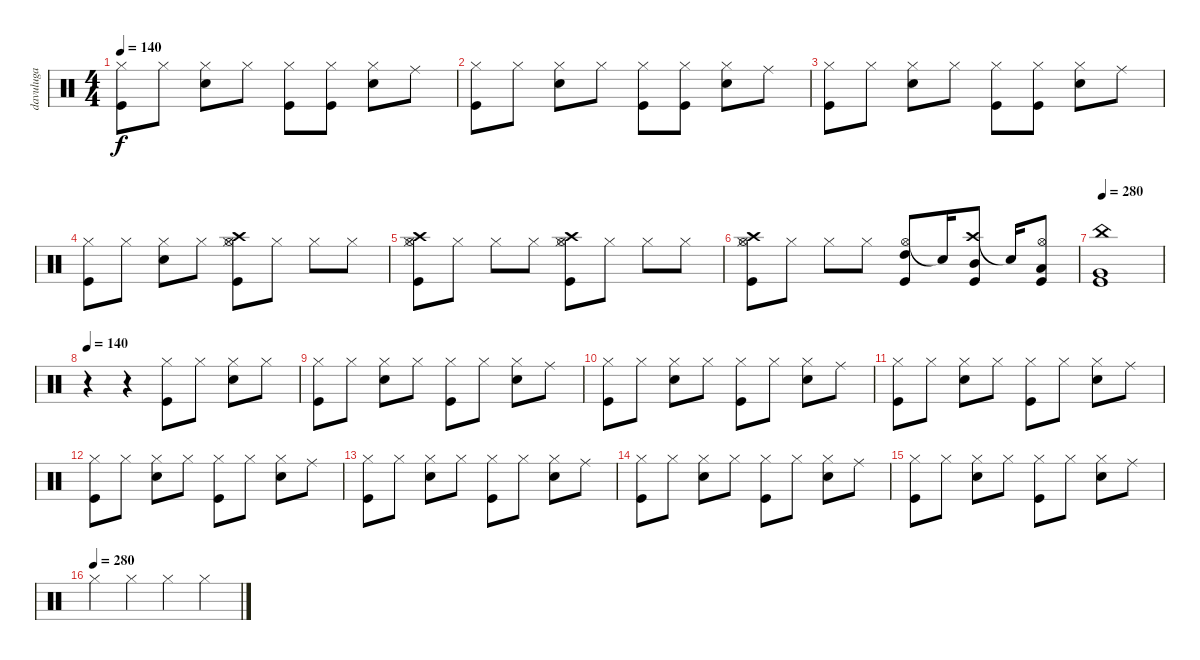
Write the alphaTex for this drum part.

\track ("davuluga" "davuluga") {instrument percussion}
\staff {score}
\articulation defaults
\ts (4 4)
\tempo 140
\clef neutral
\ks c
("Hi-Hat (closed)" "Kick (hit)").8{dy f} "Hi-Hat (closed)".8 ("Hi-Hat (closed)" "Electric Snare (hit)").8 "Hi-Hat (closed)".8 ("Hi-Hat (closed)" "Kick (hit)").8 ("Hi-Hat (closed)" "Kick (hit)").8 ("Hi-Hat (closed)" "Electric Snare (hit)").8 "Ride (middle)".8 |
("Hi-Hat (closed)" "Kick (hit)").8 "Hi-Hat (closed)".8 ("Hi-Hat (closed)" "Electric Snare (hit)").8 "Hi-Hat (closed)".8 ("Hi-Hat (closed)" "Kick (hit)").8 ("Hi-Hat (closed)" "Kick (hit)").8 ("Hi-Hat (closed)" "Electric Snare (hit)").8 "Ride (middle)".8 |
("Hi-Hat (closed)" "Kick (hit)").8 "Hi-Hat (closed)".8 ("Hi-Hat (closed)" "Electric Snare (hit)").8 "Hi-Hat (closed)".8 ("Hi-Hat (closed)" "Kick (hit)").8 ("Hi-Hat (closed)" "Kick (hit)").8 ("Hi-Hat (closed)" "Electric Snare (hit)").8 "Ride (middle)".8 |
("Hi-Hat (closed)" "Kick (hit)").8 "Hi-Hat (closed)".8 ("Hi-Hat (closed)" "Electric Snare (hit)").8 "Hi-Hat (closed)".8 ("Hi-Hat (closed)" "Crash high (hit)" "Hi-Hat (open)" "Kick (hit)").8 "Hi-Hat (closed)".8 "Hi-Hat (closed)".8 "Hi-Hat (closed)".8 |
("Hi-Hat (closed)" "Crash high (hit)" "Hi-Hat (open)" "Kick (hit)").8 "Hi-Hat (closed)".8 "Hi-Hat (closed)".8 "Hi-Hat (closed)".8 ("Hi-Hat (closed)" "Crash high (hit)" "Hi-Hat (open)" "Kick (hit)").8 "Hi-Hat (closed)".8 "Hi-Hat (closed)".8 "Hi-Hat (closed)".8 |
("Hi-Hat (closed)" "Crash high (hit)" "Hi-Hat (open)" "Kick (hit)").8 "Hi-Hat (closed)".8 "Hi-Hat (closed)".8 "Hi-Hat (closed)".8 ("Hi-Hat (open)" "High Tom (hit)" "Kick (hit)").8 "Snare (hit)"{t}.16 ("Crash high (hit)" "Mid Tom (hit)" "Kick (hit)").8 "Snare (hit)"{t}.16 ("Hi-Hat (open)" "Low Tom (hit)" "Kick (hit)").8 |
\tempo 280
("China (hit)" "Very Low Tom (hit)" "Kick (hit)").1 |
\tempo 140
r.4 r.4 ("Hi-Hat (closed)" "Kick (hit)").8 "Hi-Hat (closed)".8 ("Hi-Hat (closed)" "Electric Snare (hit)").8 "Hi-Hat (closed)".8 |
("Hi-Hat (closed)" "Kick (hit)").8 "Hi-Hat (closed)".8 ("Hi-Hat (closed)" "Electric Snare (hit)").8 "Hi-Hat (closed)".8 ("Hi-Hat (closed)" "Kick (hit)").8 "Hi-Hat (closed)".8 ("Hi-Hat (closed)" "Electric Snare (hit)").8 "Ride (middle)".8 |
("Hi-Hat (closed)" "Kick (hit)").8 "Hi-Hat (closed)".8 ("Hi-Hat (closed)" "Electric Snare (hit)").8 "Hi-Hat (closed)".8 ("Hi-Hat (closed)" "Kick (hit)").8 "Hi-Hat (closed)".8 ("Hi-Hat (closed)" "Electric Snare (hit)").8 "Ride (middle)".8 |
("Hi-Hat (closed)" "Kick (hit)").8 "Hi-Hat (closed)".8 ("Hi-Hat (closed)" "Electric Snare (hit)").8 "Hi-Hat (closed)".8 ("Hi-Hat (closed)" "Kick (hit)").8 "Hi-Hat (closed)".8 ("Hi-Hat (closed)" "Electric Snare (hit)").8 "Ride (middle)".8 |
("Hi-Hat (closed)" "Kick (hit)").8 "Hi-Hat (closed)".8 ("Hi-Hat (closed)" "Electric Snare (hit)").8 "Hi-Hat (closed)".8 ("Hi-Hat (closed)" "Kick (hit)").8 "Hi-Hat (closed)".8 ("Hi-Hat (closed)" "Electric Snare (hit)").8 "Ride (middle)".8 |
("Hi-Hat (closed)" "Kick (hit)").8 "Hi-Hat (closed)".8 ("Hi-Hat (closed)" "Electric Snare (hit)").8 "Hi-Hat (closed)".8 ("Hi-Hat (closed)" "Kick (hit)").8 "Hi-Hat (closed)".8 ("Hi-Hat (closed)" "Electric Snare (hit)").8 "Ride (middle)".8 |
("Hi-Hat (closed)" "Kick (hit)").8 "Hi-Hat (closed)".8 ("Hi-Hat (closed)" "Electric Snare (hit)").8 "Hi-Hat (closed)".8 ("Hi-Hat (closed)" "Kick (hit)").8 "Hi-Hat (closed)".8 ("Hi-Hat (closed)" "Electric Snare (hit)").8 "Ride (middle)".8 |
("Hi-Hat (closed)" "Kick (hit)").8 "Hi-Hat (closed)".8 ("Hi-Hat (closed)" "Electric Snare (hit)").8 "Hi-Hat (closed)".8 ("Hi-Hat (closed)" "Kick (hit)").8 "Hi-Hat (closed)".8 ("Hi-Hat (closed)" "Electric Snare (hit)").8 "Ride (middle)".8 |
\tempo (280)
"Hi-Hat (closed)".4 "Hi-Hat (closed)".4 "Hi-Hat (closed)".4 "Hi-Hat (closed)".4
